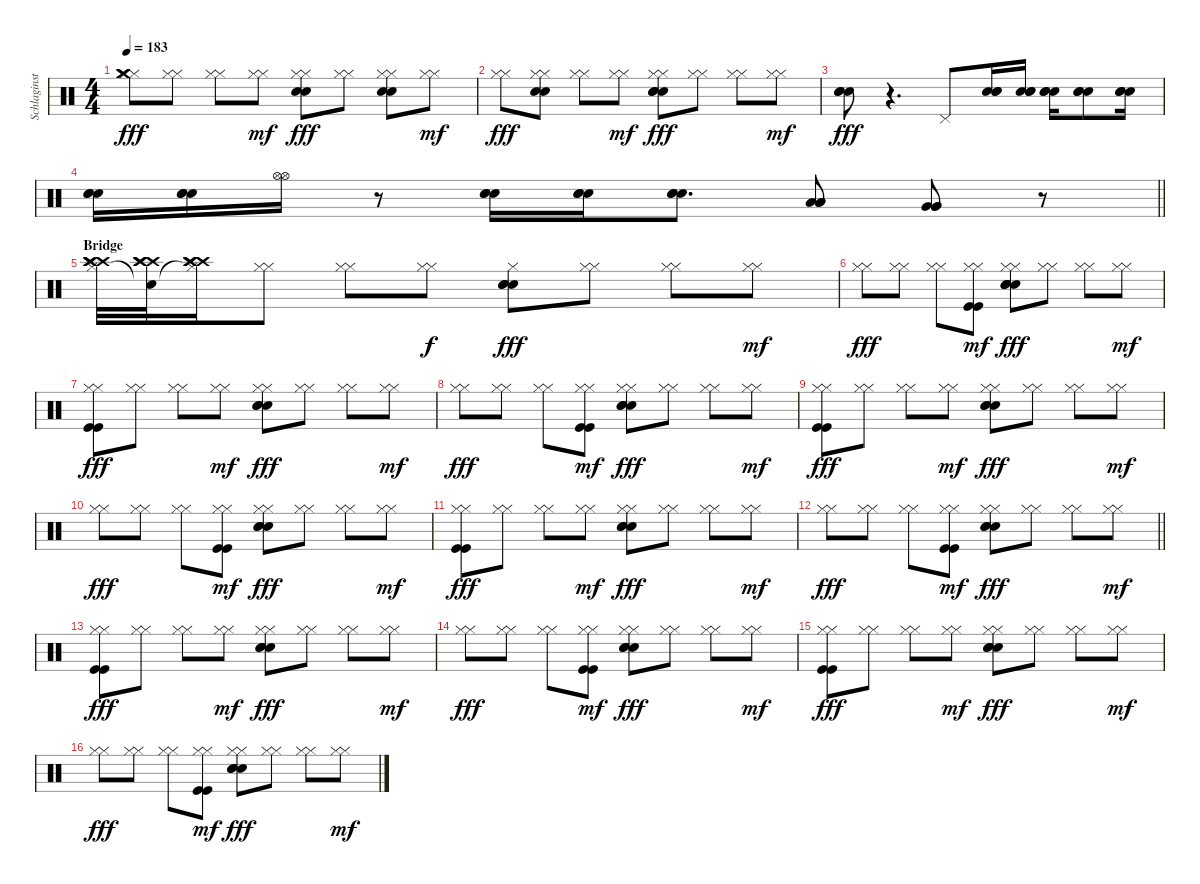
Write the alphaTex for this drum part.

\track ("Schlaginstrumente - Auswahl" "Schlaginst") {instrument percussion}
\staff {score}
\articulation defaults
\ts (4 4)
\tempo 183
\clef neutral
\ks c
("Hi-Hat (closed)" "Hi-Hat (closed)" "Crash medium (hit)" "Crash medium (hit)").8{dy fff} ("Hi-Hat (closed)" "Hi-Hat (closed)").8 ("Hi-Hat (closed)" "Hi-Hat (closed)").8 ("Hi-Hat (closed)" "Hi-Hat (closed)").8{dy mf} ("Hi-Hat (closed)" "Hi-Hat (closed)" "Snare (hit) 2" "Snare (hit) 2").8{dy fff} ("Hi-Hat (closed)" "Hi-Hat (closed)").8 ("Hi-Hat (closed)" "Hi-Hat (closed)" "Snare (hit) 2" "Snare (hit) 2").8 ("Hi-Hat (closed)" "Hi-Hat (closed)").8{dy mf} |
("Hi-Hat (closed)" "Hi-Hat (closed)").8{dy fff} ("Hi-Hat (closed)" "Hi-Hat (closed)" "Snare (hit) 2" "Snare (hit) 2").8 ("Hi-Hat (closed)" "Hi-Hat (closed)").8 ("Hi-Hat (closed)" "Hi-Hat (closed)").8{dy mf} ("Hi-Hat (closed)" "Hi-Hat (closed)" "Snare (hit) 2" "Snare (hit) 2" "Snare (hit) 2").8{dy fff} ("Hi-Hat (closed)" "Hi-Hat (closed)").8 ("Hi-Hat (closed)" "Hi-Hat (closed)").8 ("Hi-Hat (closed)" "Hi-Hat (closed)").8{dy mf} |
("Snare (hit) 2" "Snare (hit) 2" "Snare (hit) 2").8{dy fff} r.4{d} "Pedal Hi-Hat (hit)".8 ("Snare (hit) 2" "Snare (hit) 2" "Snare (hit) 2").16 ("Snare (hit) 2" "Snare (hit) 2" "Snare (hit) 2").16 ("Snare (hit) 2" "Snare (hit) 2" "Snare (hit) 2").16 ("Snare (hit) 2" "Snare (hit) 2" "Snare (hit) 2").8 ("Snare (hit) 2" "Snare (hit) 2" "Snare (hit) 2").16 |
\barLineRight lightlight
("Snare (hit) 2" "Snare (hit) 2" "Snare (hit) 2").16 ("Snare (hit) 2" "Snare (hit) 2" "Snare (hit) 2").16 ("Hi-Hat (open)" "Hi-Hat (open)").16 r.8 ("Snare (hit) 2" "Snare (hit) 2" "Snare (hit) 2").16 ("Snare (hit) 2" "Snare (hit) 2" "Snare (hit) 2").16 ("Snare (hit) 2" "Snare (hit) 2" "Snare (hit) 2").8{d} ("Low Tom (hit)" "Low Tom (hit)" "Low Tom (hit)").8 ("Very Low Tom (hit)" "Very Low Tom (hit)" "Very Low Tom (hit)").8 r.8 |
\section ("" "Bridge")
("Hi-Hat (closed)" "Crash high (hit)" "Crash high (hit)" "Crash high (hit)" "Crash high (hit)").32 ("Snare (hit)"{t} "Crash high (hit)" "Crash high (hit)" "Crash high (hit)" "Crash high (hit)").32 ("Hi-Hat (closed)"{t} "Crash high (hit)" "Crash high (hit)" "Crash high (hit)" "Crash high (hit)").16 ("Hi-Hat (closed)" "Hi-Hat (closed)").8 ("Hi-Hat (closed)" "Hi-Hat (closed)").8 ("Hi-Hat (closed)" "Hi-Hat (closed)").8{dy f} ("Hi-Hat (closed)" "Snare (hit) 2" "Snare (hit) 2" "Snare (hit) 2").8{dy fff} ("Hi-Hat (closed)" "Hi-Hat (closed)").8 ("Hi-Hat (closed)" "Hi-Hat (closed)").8 ("Hi-Hat (closed)" "Hi-Hat (closed)").8{dy mf} |
("Hi-Hat (closed)" "Hi-Hat (closed)").8{dy fff} ("Hi-Hat (closed)" "Hi-Hat (closed)").8 ("Hi-Hat (closed)" "Hi-Hat (closed)").8 ("Hi-Hat (closed)" "Hi-Hat (closed)" "Kick (hit)" "Kick (hit)").8{dy mf} ("Hi-Hat (closed)" "Hi-Hat (closed)" "Snare (hit) 2" "Snare (hit) 2" "Snare (hit) 2" "Snare (hit) 2").8{dy fff} ("Hi-Hat (closed)" "Hi-Hat (closed)").8 ("Hi-Hat (closed)" "Hi-Hat (closed)").8 ("Hi-Hat (closed)" "Hi-Hat (closed)").8{dy mf} |
("Hi-Hat (closed)" "Hi-Hat (closed)" "Kick (hit)" "Kick (hit)").8{dy fff} ("Hi-Hat (closed)" "Hi-Hat (closed)").8 ("Hi-Hat (closed)" "Hi-Hat (closed)").8 ("Hi-Hat (closed)" "Hi-Hat (closed)").8{dy mf} ("Hi-Hat (closed)" "Hi-Hat (closed)" "Snare (hit) 2" "Snare (hit) 2" "Snare (hit) 2").8{dy fff} ("Hi-Hat (closed)" "Hi-Hat (closed)").8 ("Hi-Hat (closed)" "Hi-Hat (closed)").8 ("Hi-Hat (closed)" "Hi-Hat (closed)").8{dy mf} |
("Hi-Hat (closed)" "Hi-Hat (closed)").8{dy fff} ("Hi-Hat (closed)" "Hi-Hat (closed)").8 ("Hi-Hat (closed)" "Hi-Hat (closed)").8 ("Hi-Hat (closed)" "Hi-Hat (closed)" "Kick (hit)" "Kick (hit)").8{dy mf} ("Hi-Hat (closed)" "Hi-Hat (closed)" "Snare (hit) 2" "Snare (hit) 2" "Snare (hit) 2").8{dy fff} ("Hi-Hat (closed)" "Hi-Hat (closed)").8 ("Hi-Hat (closed)" "Hi-Hat (closed)").8 ("Hi-Hat (closed)" "Hi-Hat (closed)").8{dy mf} |
("Hi-Hat (closed)" "Hi-Hat (closed)" "Kick (hit)" "Kick (hit)").8{dy fff} ("Hi-Hat (closed)" "Hi-Hat (closed)").8 ("Hi-Hat (closed)" "Hi-Hat (closed)").8 ("Hi-Hat (closed)" "Hi-Hat (closed)").8{dy mf} ("Hi-Hat (closed)" "Hi-Hat (closed)" "Snare (hit) 2" "Snare (hit) 2" "Snare (hit) 2").8{dy fff} ("Hi-Hat (closed)" "Hi-Hat (closed)").8 ("Hi-Hat (closed)" "Hi-Hat (closed)").8 ("Hi-Hat (closed)" "Hi-Hat (closed)").8{dy mf} |
("Hi-Hat (closed)" "Hi-Hat (closed)").8{dy fff} ("Hi-Hat (closed)" "Hi-Hat (closed)").8 ("Hi-Hat (closed)" "Hi-Hat (closed)").8 ("Hi-Hat (closed)" "Hi-Hat (closed)" "Kick (hit)" "Kick (hit)").8{dy mf} ("Hi-Hat (closed)" "Hi-Hat (closed)" "Snare (hit) 2" "Snare (hit) 2" "Snare (hit) 2").8{dy fff} ("Hi-Hat (closed)" "Hi-Hat (closed)").8 ("Hi-Hat (closed)" "Hi-Hat (closed)").8 ("Hi-Hat (closed)" "Hi-Hat (closed)").8{dy mf} |
("Hi-Hat (closed)" "Hi-Hat (closed)" "Kick (hit)" "Kick (hit)").8{dy fff} ("Hi-Hat (closed)" "Hi-Hat (closed)").8 ("Hi-Hat (closed)" "Hi-Hat (closed)").8 ("Hi-Hat (closed)" "Hi-Hat (closed)").8{dy mf} ("Hi-Hat (closed)" "Hi-Hat (closed)" "Snare (hit) 2" "Snare (hit) 2" "Snare (hit) 2").8{dy fff} ("Hi-Hat (closed)" "Hi-Hat (closed)").8 ("Hi-Hat (closed)" "Hi-Hat (closed)").8 ("Hi-Hat (closed)" "Hi-Hat (closed)").8{dy mf} |
\barLineRight lightlight
("Hi-Hat (closed)" "Hi-Hat (closed)").8{dy fff} ("Hi-Hat (closed)" "Hi-Hat (closed)").8 ("Hi-Hat (closed)" "Hi-Hat (closed)").8 ("Hi-Hat (closed)" "Hi-Hat (closed)" "Kick (hit)" "Kick (hit)").8{dy mf} ("Hi-Hat (closed)" "Hi-Hat (closed)" "Snare (hit) 2" "Snare (hit) 2" "Snare (hit) 2").8{dy fff} ("Hi-Hat (closed)" "Hi-Hat (closed)").8 ("Hi-Hat (closed)" "Hi-Hat (closed)").8 ("Hi-Hat (closed)" "Hi-Hat (closed)").8{dy mf} |
("Hi-Hat (closed)" "Hi-Hat (closed)" "Kick (hit)" "Kick (hit)").8{dy fff} ("Hi-Hat (closed)" "Hi-Hat (closed)").8 ("Hi-Hat (closed)" "Hi-Hat (closed)").8 ("Hi-Hat (closed)" "Hi-Hat (closed)").8{dy mf} ("Hi-Hat (closed)" "Hi-Hat (closed)" "Snare (hit) 2" "Snare (hit) 2" "Snare (hit) 2").8{dy fff} ("Hi-Hat (closed)" "Hi-Hat (closed)").8 ("Hi-Hat (closed)" "Hi-Hat (closed)").8 ("Hi-Hat (closed)" "Hi-Hat (closed)").8{dy mf} |
("Hi-Hat (closed)" "Hi-Hat (closed)").8{dy fff} ("Hi-Hat (closed)" "Hi-Hat (closed)").8 ("Hi-Hat (closed)" "Hi-Hat (closed)").8 ("Hi-Hat (closed)" "Hi-Hat (closed)" "Kick (hit)" "Kick (hit)").8{dy mf} ("Hi-Hat (closed)" "Hi-Hat (closed)" "Snare (hit) 2" "Snare (hit) 2" "Snare (hit) 2").8{dy fff} ("Hi-Hat (closed)" "Hi-Hat (closed)").8 ("Hi-Hat (closed)" "Hi-Hat (closed)").8 ("Hi-Hat (closed)" "Hi-Hat (closed)").8{dy mf} |
("Hi-Hat (closed)" "Hi-Hat (closed)" "Kick (hit)" "Kick (hit)").8{dy fff} ("Hi-Hat (closed)" "Hi-Hat (closed)").8 ("Hi-Hat (closed)" "Hi-Hat (closed)").8 ("Hi-Hat (closed)" "Hi-Hat (closed)").8{dy mf} ("Hi-Hat (closed)" "Hi-Hat (closed)" "Snare (hit) 2" "Snare (hit) 2" "Snare (hit) 2").8{dy fff} ("Hi-Hat (closed)" "Hi-Hat (closed)").8 ("Hi-Hat (closed)" "Hi-Hat (closed)").8 ("Hi-Hat (closed)" "Hi-Hat (closed)").8{dy mf} |
("Hi-Hat (closed)" "Hi-Hat (closed)").8{dy fff} ("Hi-Hat (closed)" "Hi-Hat (closed)").8 ("Hi-Hat (closed)" "Hi-Hat (closed)").8 ("Hi-Hat (closed)" "Hi-Hat (closed)" "Kick (hit)" "Kick (hit)").8{dy mf} ("Hi-Hat (closed)" "Hi-Hat (closed)" "Snare (hit) 2" "Snare (hit) 2" "Snare (hit) 2").8{dy fff} ("Hi-Hat (closed)" "Hi-Hat (closed)").8 ("Hi-Hat (closed)" "Hi-Hat (closed)").8 ("Hi-Hat (closed)" "Hi-Hat (closed)").8{dy mf}
